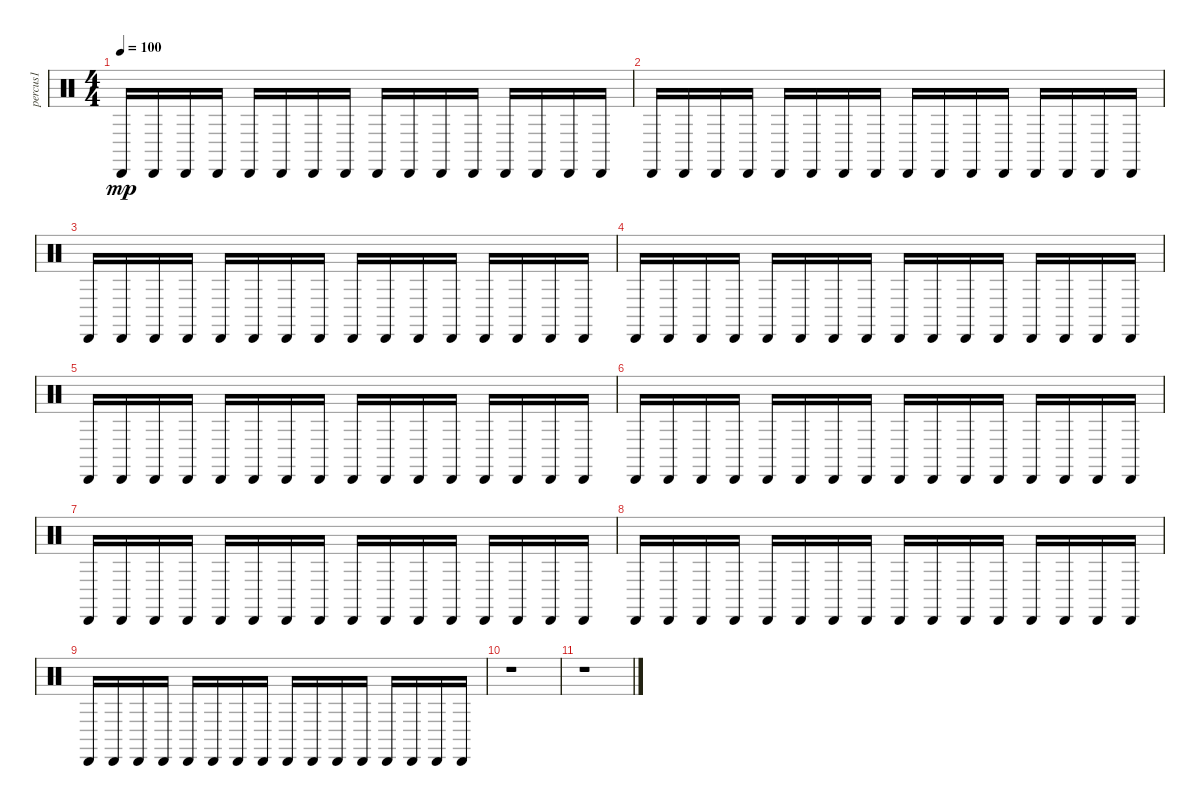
\track ("percus1" "percus1") {instrument percussion}
\staff {score}
\articulation defaults
\ts (4 4)
\tempo 100
\clef neutral
\ks c "Cabasa (hit)".16{dy mp} "Cabasa (hit)".16 "Cabasa (hit)".16 "Cabasa (hit)".16 "Cabasa (hit)".16 "Cabasa (hit)".16 "Cabasa (hit)".16 "Cabasa (hit)".16 "Cabasa (hit)".16 "Cabasa (hit)".16 "Cabasa (hit)".16 "Cabasa (hit)".16 "Cabasa (hit)".16 "Cabasa (hit)".16 "Cabasa (hit)".16 "Cabasa (hit)".16
|
"Cabasa (hit)".16 "Cabasa (hit)".16 "Cabasa (hit)".16 "Cabasa (hit)".16 "Cabasa (hit)".16 "Cabasa (hit)".16 "Cabasa (hit)".16 "Cabasa (hit)".16 "Cabasa (hit)".16 "Cabasa (hit)".16 "Cabasa (hit)".16 "Cabasa (hit)".16 "Cabasa (hit)".16 "Cabasa (hit)".16 "Cabasa (hit)".16 "Cabasa (hit)".16 |
"Cabasa (hit)".16 "Cabasa (hit)".16 "Cabasa (hit)".16 "Cabasa (hit)".16 "Cabasa (hit)".16 "Cabasa (hit)".16 "Cabasa (hit)".16 "Cabasa (hit)".16 "Cabasa (hit)".16 "Cabasa (hit)".16 "Cabasa (hit)".16 "Cabasa (hit)".16 "Cabasa (hit)".16 "Cabasa (hit)".16 "Cabasa (hit)".16 "Cabasa (hit)".16 |
"Cabasa (hit)".16 "Cabasa (hit)".16 "Cabasa (hit)".16 "Cabasa (hit)".16 "Cabasa (hit)".16 "Cabasa (hit)".16 "Cabasa (hit)".16 "Cabasa (hit)".16 "Cabasa (hit)".16 "Cabasa (hit)".16 "Cabasa (hit)".16 "Cabasa (hit)".16 "Cabasa (hit)".16 "Cabasa (hit)".16 "Cabasa (hit)".16 "Cabasa (hit)".16 |
"Cabasa (hit)".16 "Cabasa (hit)".16 "Cabasa (hit)".16 "Cabasa (hit)".16 "Cabasa (hit)".16 "Cabasa (hit)".16 "Cabasa (hit)".16 "Cabasa (hit)".16 "Cabasa (hit)".16 "Cabasa (hit)".16 "Cabasa (hit)".16 "Cabasa (hit)".16 "Cabasa (hit)".16 "Cabasa (hit)".16 "Cabasa (hit)".16 "Cabasa (hit)".16 |
"Cabasa (hit)".16 "Cabasa (hit)".16 "Cabasa (hit)".16 "Cabasa (hit)".16 "Cabasa (hit)".16 "Cabasa (hit)".16 "Cabasa (hit)".16 "Cabasa (hit)".16 "Cabasa (hit)".16 "Cabasa (hit)".16 "Cabasa (hit)".16 "Cabasa (hit)".16 "Cabasa (hit)".16 "Cabasa (hit)".16 "Cabasa (hit)".16 "Cabasa (hit)".16 |
"Cabasa (hit)".16 "Cabasa (hit)".16 "Cabasa (hit)".16 "Cabasa (hit)".16 "Cabasa (hit)".16 "Cabasa (hit)".16 "Cabasa (hit)".16 "Cabasa (hit)".16 "Cabasa (hit)".16 "Cabasa (hit)".16 "Cabasa (hit)".16 "Cabasa (hit)".16 "Cabasa (hit)".16 "Cabasa (hit)".16 "Cabasa (hit)".16 "Cabasa (hit)".16 |
"Cabasa (hit)".16 "Cabasa (hit)".16 "Cabasa (hit)".16 "Cabasa (hit)".16 "Cabasa (hit)".16 "Cabasa (hit)".16 "Cabasa (hit)".16 "Cabasa (hit)".16 "Cabasa (hit)".16 "Cabasa (hit)".16 "Cabasa (hit)".16 "Cabasa (hit)".16 "Cabasa (hit)".16 "Cabasa (hit)".16 "Cabasa (hit)".16 "Cabasa (hit)".16 |
"Cabasa (hit)".16 "Cabasa (hit)".16 "Cabasa (hit)".16 "Cabasa (hit)".16 "Cabasa (hit)".16 "Cabasa (hit)".16 "Cabasa (hit)".16 "Cabasa (hit)".16 "Cabasa (hit)".16 "Cabasa (hit)".16 "Cabasa (hit)".16 "Cabasa (hit)".16 "Cabasa (hit)".16 "Cabasa (hit)".16 "Cabasa (hit)".16 "Cabasa (hit)".16 |
r.1 |
r.1
